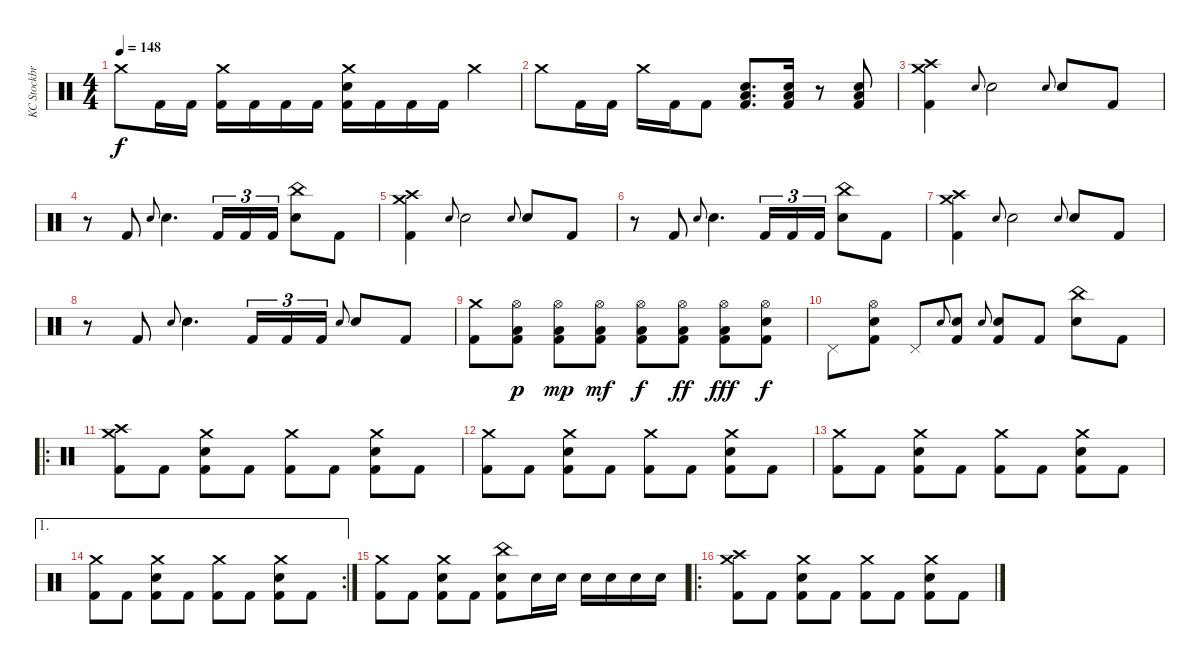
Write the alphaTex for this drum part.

\track ("KC Stockbridge" "KC Stockbr") {instrument percussion}
\staff {score}
\articulation defaults
\ts (4 4)
\tempo 148
\clef neutral
\ks c "Crash medium (hit)".8{dy f} "Kick (hit) 2".16 "Kick (hit) 2".16
("Crash medium (hit)" "Kick (hit) 2").16 "Kick (hit) 2".16 "Kick (hit) 2".16 "Kick (hit) 2".16 ("Crash medium (hit)" "Electric Snare (hit)" "Kick (hit) 2").16 "Kick (hit) 2".16 "Kick (hit) 2".16 "Kick (hit) 2".16 "Crash medium (hit)".4 |
"Crash medium (hit)".8 "Kick (hit) 2".16 "Kick (hit) 2".16 "Crash medium (hit)".16 "Kick (hit) 2".16 "Kick (hit) 2".8 ("Low Tom (hit)" "Electric Snare (hit)" "Kick (hit) 2").8{d} ("Low Tom (hit)" "Electric Snare (hit)" "Kick (hit) 2").16 r.8 ("Low Tom (hit)" "Electric Snare (hit)" "Kick (hit) 2").8 |
("Crash high (hit)" "Crash medium (hit)" "Kick (hit) 2").4 "Electric Snare (hit)".8{gr onbeat} "Electric Snare (hit)".2 "Electric Snare (hit)".8{gr onbeat} "Electric Snare (hit)".8 "Kick (hit) 2".8 |
r.8 "Kick (hit) 2".8 "Electric Snare (hit)".8{gr onbeat} "Electric Snare (hit)".4{d} "Kick (hit) 2".16{tu (3 2)} "Kick (hit) 2".16{tu (3 2)} "Kick (hit) 2".16{tu (3 2)} ("China (hit)" "Electric Snare (hit)").8 "Kick (hit) 2".8 |
("Crash high (hit)" "Crash medium (hit)" "Kick (hit) 2").4 "Electric Snare (hit)".8{gr onbeat} "Electric Snare (hit)".2 "Electric Snare (hit)".8{gr onbeat} "Electric Snare (hit)".8 "Kick (hit) 2".8 |
r.8 "Kick (hit) 2".8 "Electric Snare (hit)".8{gr onbeat} "Electric Snare (hit)".4{d} "Kick (hit) 2".16{tu (3 2)} "Kick (hit) 2".16{tu (3 2)} "Kick (hit) 2".16{tu (3 2)} ("China (hit)" "Electric Snare (hit)").8 "Kick (hit) 2".8 |
("Crash high (hit)" "Crash medium (hit)" "Kick (hit) 2").4 "Electric Snare (hit)".8{gr onbeat} "Electric Snare (hit)".2 "Electric Snare (hit)".8{gr onbeat} "Electric Snare (hit)".8 "Kick (hit) 2".8 |
r.8 "Kick (hit) 2".8 "Electric Snare (hit)".8{gr onbeat} "Electric Snare (hit)".4{d} "Kick (hit) 2".16{tu (3 2)} "Kick (hit) 2".16{tu (3 2)} "Kick (hit) 2".16{tu (3 2)} "Electric Snare (hit)".8{gr onbeat} "Electric Snare (hit)".8 "Kick (hit) 2".8 |
("Crash medium (hit)" "Kick (hit) 2").8 ("Hi-Hat (open)" "Low Tom (hit)" "Kick (hit) 2").8{dy p} ("Hi-Hat (open)" "Low Tom (hit)" "Kick (hit) 2").8{dy mp} ("Hi-Hat (open)" "Low Tom (hit)" "Kick (hit) 2").8{dy mf} ("Hi-Hat (open)" "Low Tom (hit)" "Kick (hit) 2").8{dy f} ("Hi-Hat (open)" "Low Tom (hit)" "Kick (hit) 2").8{dy ff} ("Hi-Hat (open)" "Low Tom (hit)" "Kick (hit) 2").8{dy fff} ("Hi-Hat (open)" "Electric Snare (hit)" "Kick (hit) 2").8{dy f} |
"Pedal Hi-Hat (hit)".8 ("Hi-Hat (open)" "Electric Snare (hit)" "Kick (hit) 2").8 "Pedal Hi-Hat (hit)".8 "Electric Snare (hit)".8{gr onbeat} ("Electric Snare (hit)" "Kick (hit) 2").8 "Electric Snare (hit)".8{gr onbeat} ("Electric Snare (hit)" "Kick (hit) 2").8 "Kick (hit) 2".8 ("China (hit)" "Electric Snare (hit)").8 "Kick (hit) 2".8 |
\ro
("Crash medium (hit)" "Crash high (hit)" "Kick (hit) 2").8 "Kick (hit) 2".8 ("Crash medium (hit)" "Electric Snare (hit)" "Kick (hit) 2").8 "Kick (hit) 2".8 ("Crash medium (hit)" "Kick (hit) 2").8 "Kick (hit) 2".8 ("Crash medium (hit)" "Electric Snare (hit)" "Kick (hit) 2").8 "Kick (hit) 2".8 |
("Crash medium (hit)" "Kick (hit) 2").8 "Kick (hit) 2".8 ("Crash medium (hit)" "Electric Snare (hit)" "Kick (hit) 2").8 "Kick (hit) 2".8 ("Crash medium (hit)" "Kick (hit) 2").8 "Kick (hit) 2".8 ("Crash medium (hit)" "Electric Snare (hit)" "Kick (hit) 2").8 "Kick (hit) 2".8 |
("Crash medium (hit)" "Kick (hit) 2").8 "Kick (hit) 2".8 ("Crash medium (hit)" "Electric Snare (hit)" "Kick (hit) 2").8 "Kick (hit) 2".8 ("Crash medium (hit)" "Kick (hit) 2").8 "Kick (hit) 2".8 ("Crash medium (hit)" "Electric Snare (hit)" "Kick (hit) 2").8 "Kick (hit) 2".8 |
\ae 1
\rc 2
("Crash medium (hit)" "Kick (hit) 2").8 "Kick (hit) 2".8 ("Crash medium (hit)" "Electric Snare (hit)" "Kick (hit) 2").8 "Kick (hit) 2".8 ("Crash medium (hit)" "Kick (hit) 2").8 "Kick (hit) 2".8 ("Crash medium (hit)" "Electric Snare (hit)" "Kick (hit) 2").8 "Kick (hit) 2".8 |
("Crash medium (hit)" "Kick (hit) 2").8 "Kick (hit) 2".8 ("Crash medium (hit)" "Electric Snare (hit)" "Kick (hit) 2").8 "Kick (hit) 2".8 ("China (hit)" "Electric Snare (hit)" "Kick (hit) 2").8 "Electric Snare (hit)".16 "Electric Snare (hit)".16 "Electric Snare (hit)".16 "Electric Snare (hit)".16 "Electric Snare (hit)".16 "Electric Snare (hit)".16 |
\ro
("Crash medium (hit)" "Crash high (hit)" "Kick (hit) 2").8 "Kick (hit) 2".8 ("Crash medium (hit)" "Electric Snare (hit)" "Kick (hit) 2").8 "Kick (hit) 2".8 ("Crash medium (hit)" "Kick (hit) 2").8 "Kick (hit) 2".8 ("Crash medium (hit)" "Electric Snare (hit)" "Kick (hit) 2").8 "Kick (hit) 2".8
